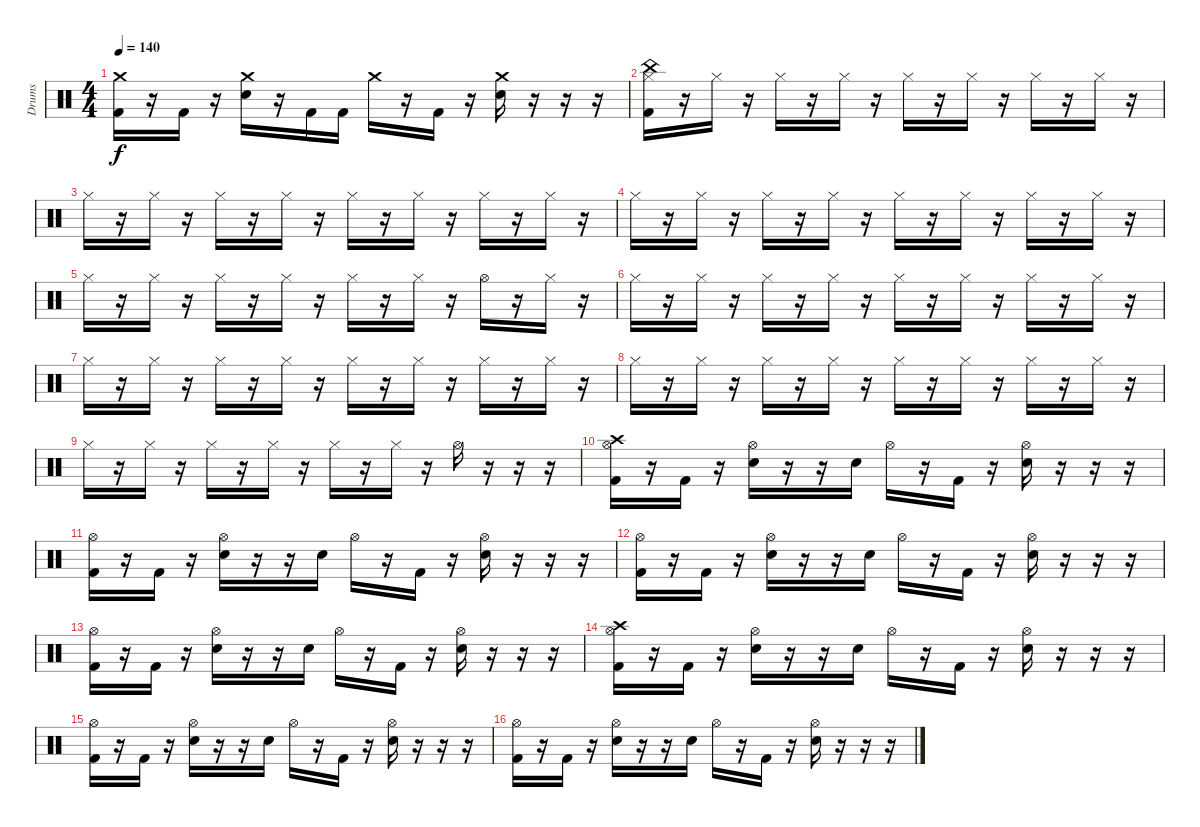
\track ("Drums" "Drums") {instrument percussion}
\staff {score}
\articulation defaults
\ts (4 4)
\tempo 140
\clef neutral
\ks c
("Kick (hit) 2" "Crash medium (hit)").16{dy f} r.16 "Kick (hit) 2".16 r.16 ("Electric Snare (hit)" "Crash medium (hit)").16 r.16 "Kick (hit) 2".16 "Kick (hit) 2".16 "Crash medium (hit)".16 r.16 "Kick (hit) 2".16 r.16 ("Electric Snare (hit)" "Crash medium (hit)").16 r.16 r.16 r.16 |
("Kick (hit) 2" "China (hit)" "Hi-Hat (closed)").16 r.16 "Hi-Hat (closed)".16 r.16 "Hi-Hat (closed)".16 r.16 "Hi-Hat (closed)".16 r.16 "Hi-Hat (closed)".16 r.16 "Hi-Hat (closed)".16 r.16 "Hi-Hat (closed)".16 r.16 "Hi-Hat (closed)".16 r.16 |
"Hi-Hat (closed)".16 r.16 "Hi-Hat (closed)".16 r.16 "Hi-Hat (closed)".16 r.16 "Hi-Hat (closed)".16 r.16 "Hi-Hat (closed)".16 r.16 "Hi-Hat (closed)".16 r.16 "Hi-Hat (closed)".16 r.16 "Hi-Hat (closed)".16 r.16 |
"Hi-Hat (closed)".16 r.16 "Hi-Hat (closed)".16 r.16 "Hi-Hat (closed)".16 r.16 "Hi-Hat (closed)".16 r.16 "Hi-Hat (closed)".16 r.16 "Hi-Hat (closed)".16 r.16 "Hi-Hat (closed)".16 r.16 "Hi-Hat (closed)".16 r.16 |
"Hi-Hat (closed)".16 r.16 "Hi-Hat (closed)".16 r.16 "Hi-Hat (closed)".16 r.16 "Hi-Hat (closed)".16 r.16 "Hi-Hat (closed)".16 r.16 "Hi-Hat (closed)".16 r.16 "Hi-Hat (open)".16 r.16 "Hi-Hat (closed)".16 r.16 |
"Hi-Hat (closed)".16 r.16 "Hi-Hat (closed)".16 r.16 "Hi-Hat (closed)".16 r.16 "Hi-Hat (closed)".16 r.16 "Hi-Hat (closed)".16 r.16 "Hi-Hat (closed)".16 r.16 "Hi-Hat (closed)".16 r.16 "Hi-Hat (closed)".16 r.16 |
"Hi-Hat (closed)".16 r.16 "Hi-Hat (closed)".16 r.16 "Hi-Hat (closed)".16 r.16 "Hi-Hat (closed)".16 r.16 "Hi-Hat (closed)".16 r.16 "Hi-Hat (closed)".16 r.16 "Hi-Hat (closed)".16 r.16 "Hi-Hat (closed)".16 r.16 |
"Hi-Hat (closed)".16 r.16 "Hi-Hat (closed)".16 r.16 "Hi-Hat (closed)".16 r.16 "Hi-Hat (closed)".16 r.16 "Hi-Hat (closed)".16 r.16 "Hi-Hat (closed)".16 r.16 "Hi-Hat (closed)".16 r.16 "Hi-Hat (closed)".16 r.16 |
"Hi-Hat (closed)".16 r.16 "Hi-Hat (closed)".16 r.16 "Hi-Hat (closed)".16 r.16 "Hi-Hat (closed)".16 r.16 "Hi-Hat (closed)".16 r.16 "Hi-Hat (closed)".16 r.16 "Hi-Hat (open)".16 r.16 r.16 r.16 |
("Kick (hit) 2" "Crash high (hit)" "Hi-Hat (open)").16 r.16 "Kick (hit) 2".16 r.16 ("Electric Snare (hit)" "Hi-Hat (open)").16 r.16 r.16 "Electric Snare (hit)".16 "Hi-Hat (open)".16 r.16 "Kick (hit) 2".16 r.16 ("Electric Snare (hit)" "Hi-Hat (open)").16 r.16 r.16 r.16 |
("Kick (hit) 2" "Hi-Hat (open)").16 r.16 "Kick (hit) 2".16 r.16 ("Electric Snare (hit)" "Hi-Hat (open)").16 r.16 r.16 "Electric Snare (hit)".16 "Hi-Hat (open)".16 r.16 "Kick (hit) 2".16 r.16 ("Electric Snare (hit)" "Hi-Hat (open)").16 r.16 r.16 r.16 |
("Kick (hit) 2" "Hi-Hat (open)").16 r.16 "Kick (hit) 2".16 r.16 ("Electric Snare (hit)" "Hi-Hat (open)").16 r.16 r.16 "Electric Snare (hit)".16 "Hi-Hat (open)".16 r.16 "Kick (hit) 2".16 r.16 ("Electric Snare (hit)" "Hi-Hat (open)").16 r.16 r.16 r.16 |
("Kick (hit) 2" "Hi-Hat (open)").16 r.16 "Kick (hit) 2".16 r.16 ("Electric Snare (hit)" "Hi-Hat (open)").16 r.16 r.16 "Electric Snare (hit)".16 "Hi-Hat (open)".16 r.16 "Kick (hit) 2".16 r.16 ("Electric Snare (hit)" "Hi-Hat (open)").16 r.16 r.16 r.16 |
("Kick (hit) 2" "Crash high (hit)" "Hi-Hat (open)").16 r.16 "Kick (hit) 2".16 r.16 ("Electric Snare (hit)" "Hi-Hat (open)").16 r.16 r.16 "Electric Snare (hit)".16 "Hi-Hat (open)".16 r.16 "Kick (hit) 2".16 r.16 ("Electric Snare (hit)" "Hi-Hat (open)").16 r.16 r.16 r.16 |
("Kick (hit) 2" "Hi-Hat (open)").16 r.16 "Kick (hit) 2".16 r.16 ("Electric Snare (hit)" "Hi-Hat (open)").16 r.16 r.16 "Electric Snare (hit)".16 "Hi-Hat (open)".16 r.16 "Kick (hit) 2".16 r.16 ("Electric Snare (hit)" "Hi-Hat (open)").16 r.16 r.16 r.16 |
("Kick (hit) 2" "Hi-Hat (open)").16 r.16 "Kick (hit) 2".16 r.16 ("Electric Snare (hit)" "Hi-Hat (open)").16 r.16 r.16 "Electric Snare (hit)".16 "Hi-Hat (open)".16 r.16 "Kick (hit) 2".16 r.16 ("Electric Snare (hit)" "Hi-Hat (open)").16 r.16 r.16 r.16
